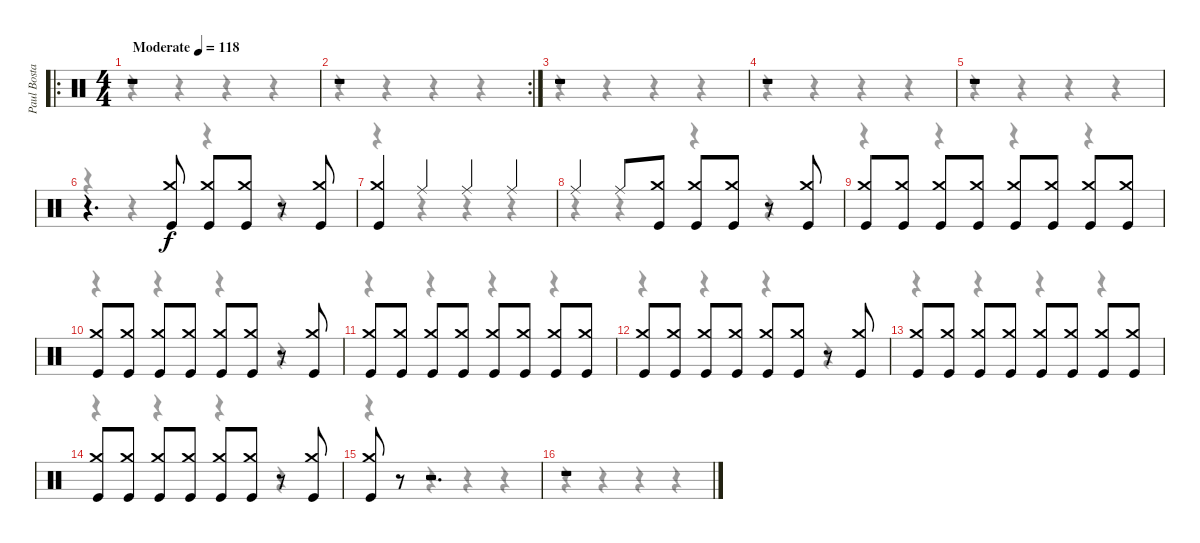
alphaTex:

\track ("Paul Bostaph" "Paul Bosta") {instrument percussion}
\staff {score}
\articulation defaults
\voice
\ro
\ts (4 4)
\tempo (118 "Moderate")
\clef neutral
\ks c
r.1{dy f} |
\rc 2
r.1 |
r.1 |
r.1 |
r.1 |
r.4{d} ("Crash medium (hit)" "Kick (hit)").8 ("Crash medium (hit)" "Kick (hit)").8 ("Crash medium (hit)" "Kick (hit)").8 r.8 ("Crash medium (hit)" "Kick (hit)").8 |
("Crash medium (hit)" "Kick (hit)").4 "Ride (middle)".4 "Ride (middle)".4 "Ride (middle)".4 |
"Ride (middle)".4 "Ride (middle)".8 ("Crash medium (hit)" "Kick (hit)").8 ("Crash medium (hit)" "Kick (hit)").8 ("Crash medium (hit)" "Kick (hit)").8 r.8 ("Crash medium (hit)" "Kick (hit)").8 |
("Crash medium (hit)" "Kick (hit)").8 ("Crash medium (hit)" "Kick (hit)").8 ("Crash medium (hit)" "Kick (hit)").8 ("Crash medium (hit)" "Kick (hit)").8 ("Crash medium (hit)" "Kick (hit)").8 ("Crash medium (hit)" "Kick (hit)").8 ("Crash medium (hit)" "Kick (hit)").8 ("Crash medium (hit)" "Kick (hit)").8 |
("Crash medium (hit)" "Kick (hit)").8 ("Crash medium (hit)" "Kick (hit)").8 ("Crash medium (hit)" "Kick (hit)").8 ("Crash medium (hit)" "Kick (hit)").8 ("Crash medium (hit)" "Kick (hit)").8 ("Crash medium (hit)" "Kick (hit)").8 r.8 ("Crash medium (hit)" "Kick (hit)").8 |
("Crash medium (hit)" "Kick (hit)").8 ("Crash medium (hit)" "Kick (hit)").8 ("Crash medium (hit)" "Kick (hit)").8 ("Crash medium (hit)" "Kick (hit)").8 ("Crash medium (hit)" "Kick (hit)").8 ("Crash medium (hit)" "Kick (hit)").8 ("Crash medium (hit)" "Kick (hit)").8 ("Crash medium (hit)" "Kick (hit)").8 |
("Crash medium (hit)" "Kick (hit)").8 ("Crash medium (hit)" "Kick (hit)").8 ("Crash medium (hit)" "Kick (hit)").8 ("Crash medium (hit)" "Kick (hit)").8 ("Crash medium (hit)" "Kick (hit)").8 ("Crash medium (hit)" "Kick (hit)").8 r.8 ("Crash medium (hit)" "Kick (hit)").8 |
("Crash medium (hit)" "Kick (hit)").8 ("Crash medium (hit)" "Kick (hit)").8 ("Crash medium (hit)" "Kick (hit)").8 ("Crash medium (hit)" "Kick (hit)").8 ("Crash medium (hit)" "Kick (hit)").8 ("Crash medium (hit)" "Kick (hit)").8 ("Crash medium (hit)" "Kick (hit)").8 ("Crash medium (hit)" "Kick (hit)").8 |
("Crash medium (hit)" "Kick (hit)").8 ("Crash medium (hit)" "Kick (hit)").8 ("Crash medium (hit)" "Kick (hit)").8 ("Crash medium (hit)" "Kick (hit)").8 ("Crash medium (hit)" "Kick (hit)").8 ("Crash medium (hit)" "Kick (hit)").8 r.8 ("Crash medium (hit)" "Kick (hit)").8 |
("Crash medium (hit)" "Kick (hit)").8 r.8 r.2{d} |
r.1
\voice
\clef neutral
\ottava regular
\simile none
\ks c
r.4{dy f} r.4 r.4 r.4 |
r.4 r.4 r.4 r.4 |
r.4 r.4 r.4 r.4 |
r.4 r.4 r.4 r.4 |
r.4 r.4 r.4 r.4 |
r.4 r.4 r.4 r.4 |
r.4 r.4 r.4 r.4 |
r.4 r.4 r.4 r.4 |
r.4 r.4 r.4 r.4 |
r.4 r.4 r.4 r.4 |
r.4 r.4 r.4 r.4 |
r.4 r.4 r.4 r.4 |
r.4 r.4 r.4 r.4 |
r.4 r.4 r.4 r.4 |
r.4 r.4 r.4 r.4 |
r.4 r.4 r.4 r.4
